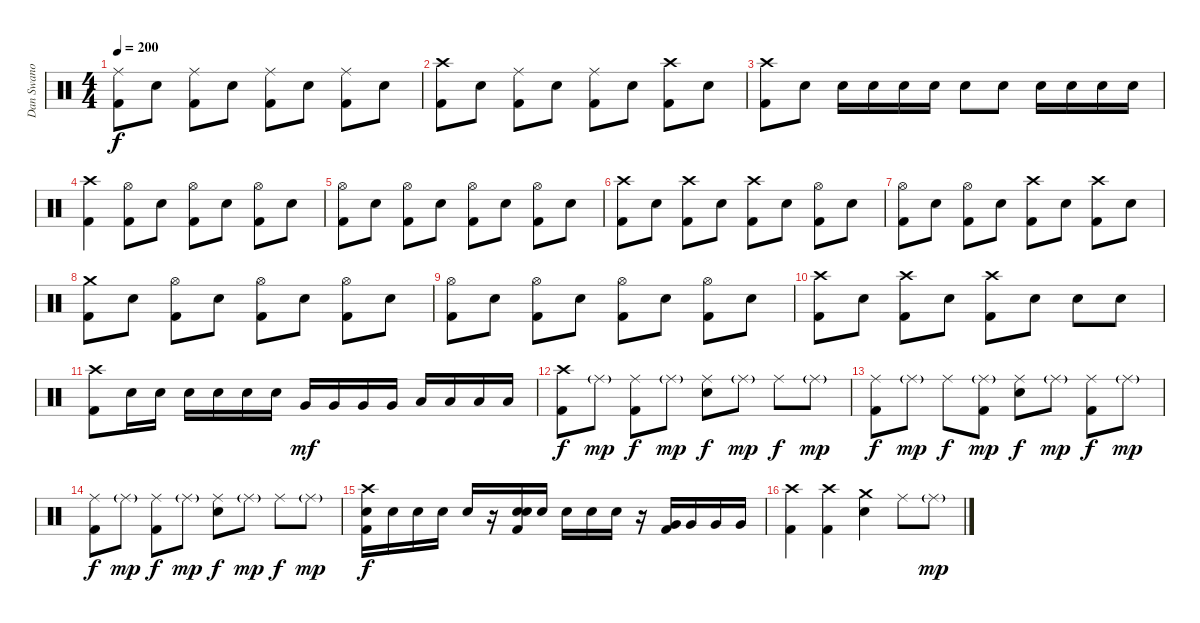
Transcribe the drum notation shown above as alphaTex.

\track ("Dan Swano" "Dan Swano") {instrument percussion}
\staff {score}
\articulation defaults
\ts (4 4)
\tempo 200
\clef neutral
\ks c
("Ride (middle)" "Kick (hit) 2").8{dy f} "Electric Snare (hit)".8 ("Ride (middle)" "Kick (hit) 2").8 "Electric Snare (hit)".8 ("Ride (middle)" "Kick (hit) 2").8 "Electric Snare (hit)".8 ("Ride (middle)" "Kick (hit) 2").8 "Electric Snare (hit)".8 |
("Crash high (hit)" "Kick (hit) 2").8 "Electric Snare (hit)".8 ("Ride (middle)" "Kick (hit) 2").8 "Electric Snare (hit)".8 ("Ride (middle)" "Kick (hit) 2").8 "Electric Snare (hit)".8 ("Crash high (hit)" "Kick (hit) 2").8 "Electric Snare (hit)".8 |
("Crash high (hit)" "Kick (hit) 2").8 "Electric Snare (hit)".8 "Electric Snare (hit)".16 "Electric Snare (hit)".16 "Electric Snare (hit)".16 "Electric Snare (hit)".16 "Electric Snare (hit)".8 "Electric Snare (hit)".8 "Electric Snare (hit)".16 "Electric Snare (hit)".16 "Electric Snare (hit)".16 "Electric Snare (hit)".16 |
("Crash high (hit)" "Kick (hit) 2").4 ("Hi-Hat (open)" "Kick (hit) 2").8 "Electric Snare (hit)".8 ("Hi-Hat (open)" "Kick (hit) 2").8 "Electric Snare (hit)".8 ("Hi-Hat (open)" "Kick (hit) 2").8 "Electric Snare (hit)".8 |
("Hi-Hat (open)" "Kick (hit) 2").8 "Electric Snare (hit)".8 ("Hi-Hat (open)" "Kick (hit) 2").8 "Electric Snare (hit)".8 ("Hi-Hat (open)" "Kick (hit) 2").8 "Electric Snare (hit)".8 ("Hi-Hat (open)" "Kick (hit) 2").8 "Electric Snare (hit)".8 |
("Crash high (hit)" "Kick (hit) 2").8 "Electric Snare (hit)".8 ("Crash high (hit)" "Kick (hit) 2").8 "Electric Snare (hit)".8 ("Crash high (hit)" "Kick (hit) 2").8 "Electric Snare (hit)".8 ("Hi-Hat (open)" "Kick (hit) 2").8 "Electric Snare (hit)".8 |
("Hi-Hat (open)" "Kick (hit) 2").8 "Electric Snare (hit)".8 ("Hi-Hat (open)" "Kick (hit) 2").8 "Electric Snare (hit)".8 ("Crash high (hit)" "Kick (hit) 2").8 "Electric Snare (hit)".8 ("Crash high (hit)" "Kick (hit) 2").8 "Electric Snare (hit)".8 |
("Crash medium (hit)" "Kick (hit) 2").8 "Electric Snare (hit)".8 ("Hi-Hat (open)" "Kick (hit) 2").8 "Electric Snare (hit)".8 ("Hi-Hat (open)" "Kick (hit) 2").8 "Electric Snare (hit)".8 ("Hi-Hat (open)" "Kick (hit) 2").8 "Electric Snare (hit)".8 |
("Hi-Hat (open)" "Kick (hit) 2").8 "Electric Snare (hit)".8 ("Hi-Hat (open)" "Kick (hit) 2").8 "Electric Snare (hit)".8 ("Hi-Hat (open)" "Kick (hit) 2").8 "Electric Snare (hit)".8 ("Hi-Hat (open)" "Kick (hit) 2").8 "Electric Snare (hit)".8 |
("Crash high (hit)" "Kick (hit) 2").8 "Electric Snare (hit)".8 ("Crash high (hit)" "Kick (hit) 2").8 "Electric Snare (hit)".8 ("Crash high (hit)" "Kick (hit) 2").8 "Electric Snare (hit)".8 "Electric Snare (hit)".8 "Electric Snare (hit)".8 |
("Crash high (hit)" "Kick (hit) 2").8 "Electric Snare (hit)".16 "Electric Snare (hit)".16 "Electric Snare (hit)".16 "Electric Snare (hit)".16 "Electric Snare (hit)".16 "Electric Snare (hit)".16 "Very Low Tom (hit)".16{dy mf} "Very Low Tom (hit)".16 "Very Low Tom (hit)".16 "Very Low Tom (hit)".16 "Low Floor Tom (hit)".16 "Low Floor Tom (hit)".16 "Low Floor Tom (hit)".16 "Low Floor Tom (hit)".16 |
("Crash high (hit)" "Kick (hit) 2").8{dy f} "Ride (middle)"{g}.8{dy mp} ("Ride (middle)" "Kick (hit) 2").8{dy f} "Ride (middle)"{g}.8{dy mp} ("Ride (middle)" "Electric Snare (hit)").8{dy f} "Ride (middle)"{g}.8{dy mp} "Ride (middle)".8{dy f} "Ride (middle)"{g}.8{dy mp} |
("Ride (middle)" "Kick (hit) 2").8{dy f} "Ride (middle)"{g}.8{dy mp} "Ride (middle)".8{dy f} ("Ride (middle)"{g} "Kick (hit) 2").8{dy mp} ("Ride (middle)" "Electric Snare (hit)").8{dy f} "Ride (middle)"{g}.8{dy mp} ("Ride (middle)" "Kick (hit) 2").8{dy f} "Ride (middle)"{g}.8{dy mp} |
("Ride (middle)" "Kick (hit) 2").8{dy f} "Ride (middle)"{g}.8{dy mp} ("Ride (middle)" "Kick (hit) 2").8{dy f} "Ride (middle)"{g}.8{dy mp} ("Ride (middle)" "Electric Snare (hit)").8{dy f} "Ride (middle)"{g}.8{dy mp} "Ride (middle)".8{dy f} "Ride (middle)"{g}.8{dy mp} |
("Crash high (hit)" "Electric Snare (hit)" "Kick (hit) 2").16{dy f} "Electric Snare (hit)".16 "Electric Snare (hit)".16 "Electric Snare (hit)".16 "Electric Snare (hit)".16 r.16 ("Electric Snare (hit)" "Electric Snare (hit)" "Kick (hit) 2").16 "Electric Snare (hit)".16 "Electric Snare (hit)".16 "Electric Snare (hit)".16 "Electric Snare (hit)".16 r.16 ("Very Low Tom (hit)" "Kick (hit) 2").16 "Very Low Tom (hit)".16 "Very Low Tom (hit)".16 "Very Low Tom (hit)".16 |
("Crash high (hit)" "Kick (hit) 2").4 ("Crash high (hit)" "Kick (hit) 2").4 ("Crash medium (hit)" "Electric Snare (hit)").4 "Ride (middle)".8 "Ride (middle)"{g}.8{dy mp}
